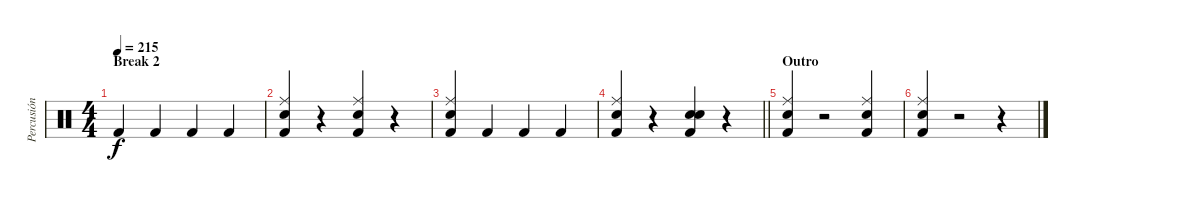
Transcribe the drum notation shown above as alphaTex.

\track ("Percusión" "Percusión") {instrument percussion}
\staff {score}
\articulation defaults
\ts (4 4)
\section ("" "Break 2")
\tempo 215
\clef neutral
\ks c "Kick (hit) 2".4{dy f} "Kick (hit) 2".4 "Kick (hit) 2".4 "Kick (hit) 2".4
|
("Ride (middle)" "Snare (hit) 2" "Kick (hit) 2").4 r.4 ("Ride (middle)" "Snare (hit) 2" "Kick (hit) 2").4 r.4 |
("Ride (middle)" "Snare (hit) 2" "Kick (hit) 2").4 "Kick (hit) 2".4 "Kick (hit) 2".4 "Kick (hit) 2".4 |
\barLineRight lightlight
("Ride (middle)" "Snare (hit) 2" "Kick (hit) 2").4 r.4 ("Snare (hit)" "Snare (hit) 2" "Kick (hit) 2").4 r.4 |
\section ("" "Outro")
("Ride (middle)" "Snare (hit) 2" "Kick (hit) 2").4 r.2 ("Ride (middle)" "Snare (hit) 2" "Kick (hit) 2").4 |
("Ride (middle)" "Snare (hit) 2" "Kick (hit) 2").4 r.2 r.4
